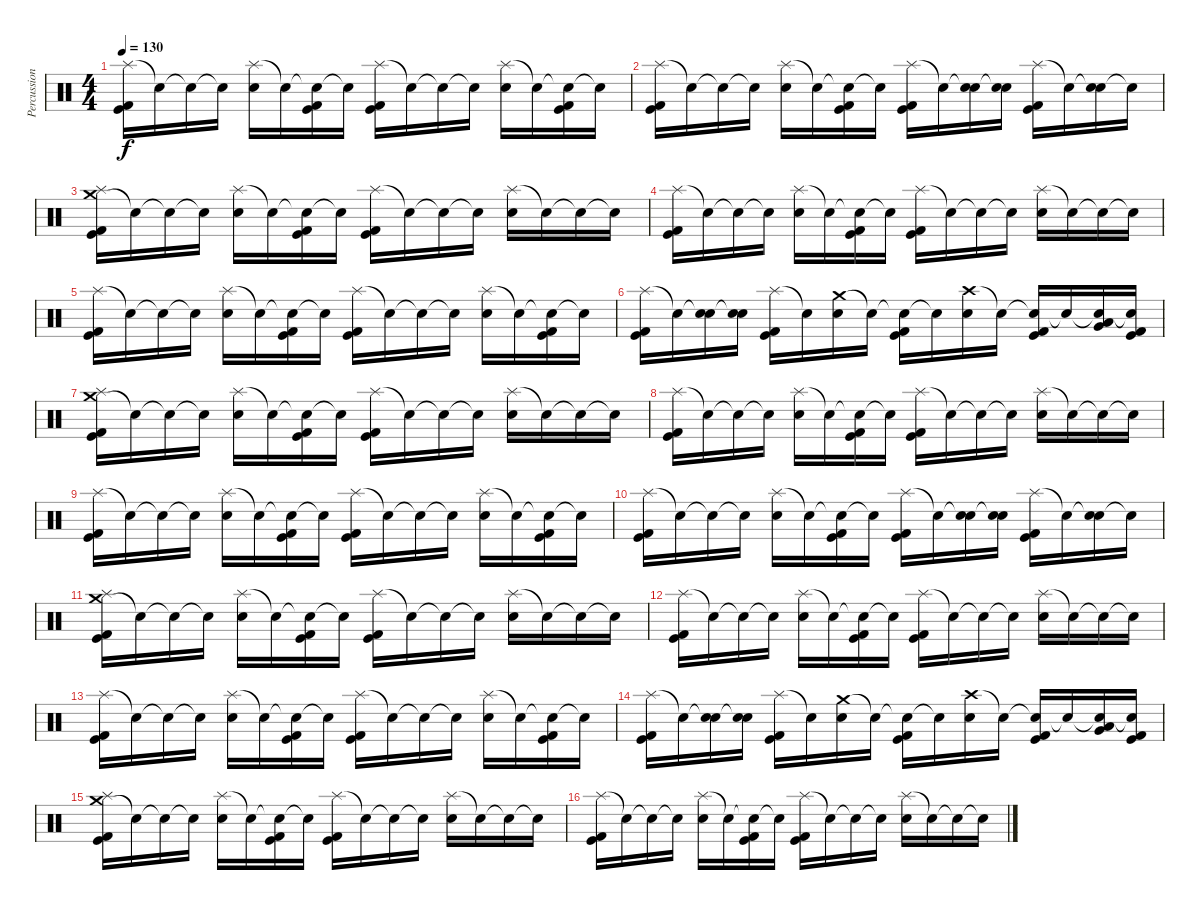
\track ("Percussion" "Percussion") {instrument percussion}
\staff {score}
\articulation defaults
\ts (4 4)
\tempo 130
\clef neutral
\ks c
("Splash (hit)" "Kick (hit)" "Kick (hit) 2").16{dy f} "Snare (hit)"{t}.16 "Snare (hit)"{t}.16 "Snare (hit)"{t}.16 ("Splash (hit)" "Electric Snare (hit)").16 "Snare (hit)"{t}.16 ("Snare (hit)"{t} "Kick (hit)" "Kick (hit) 2").16 "Snare (hit)"{t}.16 ("Splash (hit)" "Kick (hit)" "Kick (hit) 2").16 "Snare (hit)"{t}.16 "Snare (hit)"{t}.16 "Snare (hit)"{t}.16 ("Splash (hit)" "Electric Snare (hit)").16 "Snare (hit)"{t}.16 ("Snare (hit)"{t} "Kick (hit)" "Kick (hit) 2").16 "Snare (hit)"{t}.16 |
("Splash (hit)" "Kick (hit)" "Kick (hit) 2").16 "Snare (hit)"{t}.16 "Snare (hit)"{t}.16 "Snare (hit)"{t}.16 ("Splash (hit)" "Electric Snare (hit)").16 "Snare (hit)"{t}.16 ("Snare (hit)"{t} "Kick (hit)" "Kick (hit) 2").16 "Snare (hit)"{t}.16 ("Splash (hit)" "Kick (hit)" "Kick (hit) 2").16 "Snare (hit)"{t}.16 ("Snare (hit)"{t} "Electric Snare (hit)").16 ("Snare (hit)"{t} "Electric Snare (hit)").16 ("Splash (hit)" "Kick (hit)" "Kick (hit) 2").16 "Snare (hit)"{t}.16 ("Snare (hit)"{t} "Electric Snare (hit)").16 "Snare (hit)"{t}.16 |
("Crash medium (hit)" "Splash (hit)" "Kick (hit)" "Kick (hit) 2").16 "Snare (hit)"{t}.16 "Snare (hit)"{t}.16 "Snare (hit)"{t}.16 ("Splash (hit)" "Electric Snare (hit)").16 "Snare (hit)"{t}.16 ("Snare (hit)"{t} "Kick (hit)" "Kick (hit) 2").16 "Snare (hit)"{t}.16 ("Splash (hit)" "Kick (hit)" "Kick (hit) 2").16 "Snare (hit)"{t}.16 "Snare (hit)"{t}.16 "Snare (hit)"{t}.16 ("Splash (hit)" "Electric Snare (hit)").16 "Snare (hit)"{t}.16 "Snare (hit)"{t}.16 "Snare (hit)"{t}.16 |
("Splash (hit)" "Kick (hit)" "Kick (hit) 2").16 "Snare (hit)"{t}.16 "Snare (hit)"{t}.16 "Snare (hit)"{t}.16 ("Splash (hit)" "Electric Snare (hit)").16 "Snare (hit)"{t}.16 ("Snare (hit)"{t} "Kick (hit)" "Kick (hit) 2").16 "Snare (hit)"{t}.16 ("Splash (hit)" "Kick (hit)" "Kick (hit) 2").16 "Snare (hit)"{t}.16 "Snare (hit)"{t}.16 "Snare (hit)"{t}.16 ("Splash (hit)" "Electric Snare (hit)").16 "Snare (hit)"{t}.16 "Snare (hit)"{t}.16 "Snare (hit)"{t}.16 |
("Splash (hit)" "Kick (hit)" "Kick (hit) 2").16 "Snare (hit)"{t}.16 "Snare (hit)"{t}.16 "Snare (hit)"{t}.16 ("Splash (hit)" "Electric Snare (hit)").16 "Snare (hit)"{t}.16 ("Snare (hit)"{t} "Kick (hit)" "Kick (hit) 2").16 "Snare (hit)"{t}.16 ("Splash (hit)" "Kick (hit)" "Kick (hit) 2").16 "Snare (hit)"{t}.16 "Snare (hit)"{t}.16 "Snare (hit)"{t}.16 ("Splash (hit)" "Electric Snare (hit)").16 "Snare (hit)"{t}.16 ("Snare (hit)"{t} "Kick (hit)" "Kick (hit) 2").16 "Snare (hit)"{t}.16 |
("Splash (hit)" "Kick (hit)" "Kick (hit) 2").16 "Snare (hit)"{t}.16 ("Snare (hit)"{t} "Electric Snare (hit)").16 ("Snare (hit)"{t} "Electric Snare (hit)").16 ("Splash (hit)" "Kick (hit)" "Kick (hit) 2").16 "Snare (hit)"{t}.16 ("Crash medium (hit)" "Electric Snare (hit)").16 "Snare (hit)"{t}.16 ("Snare (hit)"{t} "Kick (hit)" "Kick (hit) 2").16 "Snare (hit)"{t}.16 ("Crash high (hit)" "Electric Snare (hit)").16 "Snare (hit)"{t}.16 ("Snare (hit)"{t} "Kick (hit)" "Kick (hit) 2").16 "Snare (hit)"{t}.16 ("Snare (hit)"{t} "Low Tom (hit)" "Very Low Tom (hit)").16 ("Snare (hit)"{t} "Kick (hit)" "Kick (hit) 2").16 |
("Crash medium (hit)" "Splash (hit)" "Kick (hit)" "Kick (hit) 2").16 "Snare (hit)"{t}.16 "Snare (hit)"{t}.16 "Snare (hit)"{t}.16 ("Splash (hit)" "Electric Snare (hit)").16 "Snare (hit)"{t}.16 ("Snare (hit)"{t} "Kick (hit)" "Kick (hit) 2").16 "Snare (hit)"{t}.16 ("Splash (hit)" "Kick (hit)" "Kick (hit) 2").16 "Snare (hit)"{t}.16 "Snare (hit)"{t}.16 "Snare (hit)"{t}.16 ("Splash (hit)" "Electric Snare (hit)").16 "Snare (hit)"{t}.16 "Snare (hit)"{t}.16 "Snare (hit)"{t}.16 |
("Splash (hit)" "Kick (hit)" "Kick (hit) 2").16 "Snare (hit)"{t}.16 "Snare (hit)"{t}.16 "Snare (hit)"{t}.16 ("Splash (hit)" "Electric Snare (hit)").16 "Snare (hit)"{t}.16 ("Snare (hit)"{t} "Kick (hit)" "Kick (hit) 2").16 "Snare (hit)"{t}.16 ("Splash (hit)" "Kick (hit)" "Kick (hit) 2").16 "Snare (hit)"{t}.16 "Snare (hit)"{t}.16 "Snare (hit)"{t}.16 ("Splash (hit)" "Electric Snare (hit)").16 "Snare (hit)"{t}.16 "Snare (hit)"{t}.16 "Snare (hit)"{t}.16 |
("Splash (hit)" "Kick (hit)" "Kick (hit) 2").16 "Snare (hit)"{t}.16 "Snare (hit)"{t}.16 "Snare (hit)"{t}.16 ("Splash (hit)" "Electric Snare (hit)").16 "Snare (hit)"{t}.16 ("Snare (hit)"{t} "Kick (hit)" "Kick (hit) 2").16 "Snare (hit)"{t}.16 ("Splash (hit)" "Kick (hit)" "Kick (hit) 2").16 "Snare (hit)"{t}.16 "Snare (hit)"{t}.16 "Snare (hit)"{t}.16 ("Splash (hit)" "Electric Snare (hit)").16 "Snare (hit)"{t}.16 ("Snare (hit)"{t} "Kick (hit)" "Kick (hit) 2").16 "Snare (hit)"{t}.16 |
("Splash (hit)" "Kick (hit)" "Kick (hit) 2").16 "Snare (hit)"{t}.16 "Snare (hit)"{t}.16 "Snare (hit)"{t}.16 ("Splash (hit)" "Electric Snare (hit)").16 "Snare (hit)"{t}.16 ("Snare (hit)"{t} "Kick (hit)" "Kick (hit) 2").16 "Snare (hit)"{t}.16 ("Splash (hit)" "Kick (hit)" "Kick (hit) 2").16 "Snare (hit)"{t}.16 ("Snare (hit)"{t} "Electric Snare (hit)").16 ("Snare (hit)"{t} "Electric Snare (hit)").16 ("Splash (hit)" "Kick (hit)" "Kick (hit) 2").16 "Snare (hit)"{t}.16 ("Snare (hit)"{t} "Electric Snare (hit)").16 "Snare (hit)"{t}.16 |
("Crash medium (hit)" "Splash (hit)" "Kick (hit)" "Kick (hit) 2").16 "Snare (hit)"{t}.16 "Snare (hit)"{t}.16 "Snare (hit)"{t}.16 ("Splash (hit)" "Electric Snare (hit)").16 "Snare (hit)"{t}.16 ("Snare (hit)"{t} "Kick (hit)" "Kick (hit) 2").16 "Snare (hit)"{t}.16 ("Splash (hit)" "Kick (hit)" "Kick (hit) 2").16 "Snare (hit)"{t}.16 "Snare (hit)"{t}.16 "Snare (hit)"{t}.16 ("Splash (hit)" "Electric Snare (hit)").16 "Snare (hit)"{t}.16 "Snare (hit)"{t}.16 "Snare (hit)"{t}.16 |
("Splash (hit)" "Kick (hit)" "Kick (hit) 2").16 "Snare (hit)"{t}.16 "Snare (hit)"{t}.16 "Snare (hit)"{t}.16 ("Splash (hit)" "Electric Snare (hit)").16 "Snare (hit)"{t}.16 ("Snare (hit)"{t} "Kick (hit)" "Kick (hit) 2").16 "Snare (hit)"{t}.16 ("Splash (hit)" "Kick (hit)" "Kick (hit) 2").16 "Snare (hit)"{t}.16 "Snare (hit)"{t}.16 "Snare (hit)"{t}.16 ("Splash (hit)" "Electric Snare (hit)").16 "Snare (hit)"{t}.16 "Snare (hit)"{t}.16 "Snare (hit)"{t}.16 |
("Splash (hit)" "Kick (hit)" "Kick (hit) 2").16 "Snare (hit)"{t}.16 "Snare (hit)"{t}.16 "Snare (hit)"{t}.16 ("Splash (hit)" "Electric Snare (hit)").16 "Snare (hit)"{t}.16 ("Snare (hit)"{t} "Kick (hit)" "Kick (hit) 2").16 "Snare (hit)"{t}.16 ("Splash (hit)" "Kick (hit)" "Kick (hit) 2").16 "Snare (hit)"{t}.16 "Snare (hit)"{t}.16 "Snare (hit)"{t}.16 ("Splash (hit)" "Electric Snare (hit)").16 "Snare (hit)"{t}.16 ("Snare (hit)"{t} "Kick (hit)" "Kick (hit) 2").16 "Snare (hit)"{t}.16 |
("Splash (hit)" "Kick (hit)" "Kick (hit) 2").16 "Snare (hit)"{t}.16 ("Snare (hit)"{t} "Electric Snare (hit)").16 ("Snare (hit)"{t} "Electric Snare (hit)").16 ("Splash (hit)" "Kick (hit)" "Kick (hit) 2").16 "Snare (hit)"{t}.16 ("Crash medium (hit)" "Electric Snare (hit)").16 "Snare (hit)"{t}.16 ("Snare (hit)"{t} "Kick (hit)" "Kick (hit) 2").16 "Snare (hit)"{t}.16 ("Crash high (hit)" "Electric Snare (hit)").16 "Snare (hit)"{t}.16 ("Snare (hit)"{t} "Kick (hit)" "Kick (hit) 2").16 "Snare (hit)"{t}.16 ("Snare (hit)"{t} "Low Tom (hit)" "Very Low Tom (hit)").16 ("Snare (hit)"{t} "Kick (hit)" "Kick (hit) 2").16 |
("Crash medium (hit)" "Splash (hit)" "Kick (hit)" "Kick (hit) 2").16 "Snare (hit)"{t}.16 "Snare (hit)"{t}.16 "Snare (hit)"{t}.16 ("Splash (hit)" "Electric Snare (hit)").16 "Snare (hit)"{t}.16 ("Snare (hit)"{t} "Kick (hit)" "Kick (hit) 2").16 "Snare (hit)"{t}.16 ("Splash (hit)" "Kick (hit)" "Kick (hit) 2").16 "Snare (hit)"{t}.16 "Snare (hit)"{t}.16 "Snare (hit)"{t}.16 ("Splash (hit)" "Electric Snare (hit)").16 "Snare (hit)"{t}.16 "Snare (hit)"{t}.16 "Snare (hit)"{t}.16 |
("Splash (hit)" "Kick (hit)" "Kick (hit) 2").16 "Snare (hit)"{t}.16 "Snare (hit)"{t}.16 "Snare (hit)"{t}.16 ("Splash (hit)" "Electric Snare (hit)").16 "Snare (hit)"{t}.16 ("Snare (hit)"{t} "Kick (hit)" "Kick (hit) 2").16 "Snare (hit)"{t}.16 ("Splash (hit)" "Kick (hit)" "Kick (hit) 2").16 "Snare (hit)"{t}.16 "Snare (hit)"{t}.16 "Snare (hit)"{t}.16 ("Splash (hit)" "Electric Snare (hit)").16 "Snare (hit)"{t}.16 "Snare (hit)"{t}.16 "Snare (hit)"{t}.16
